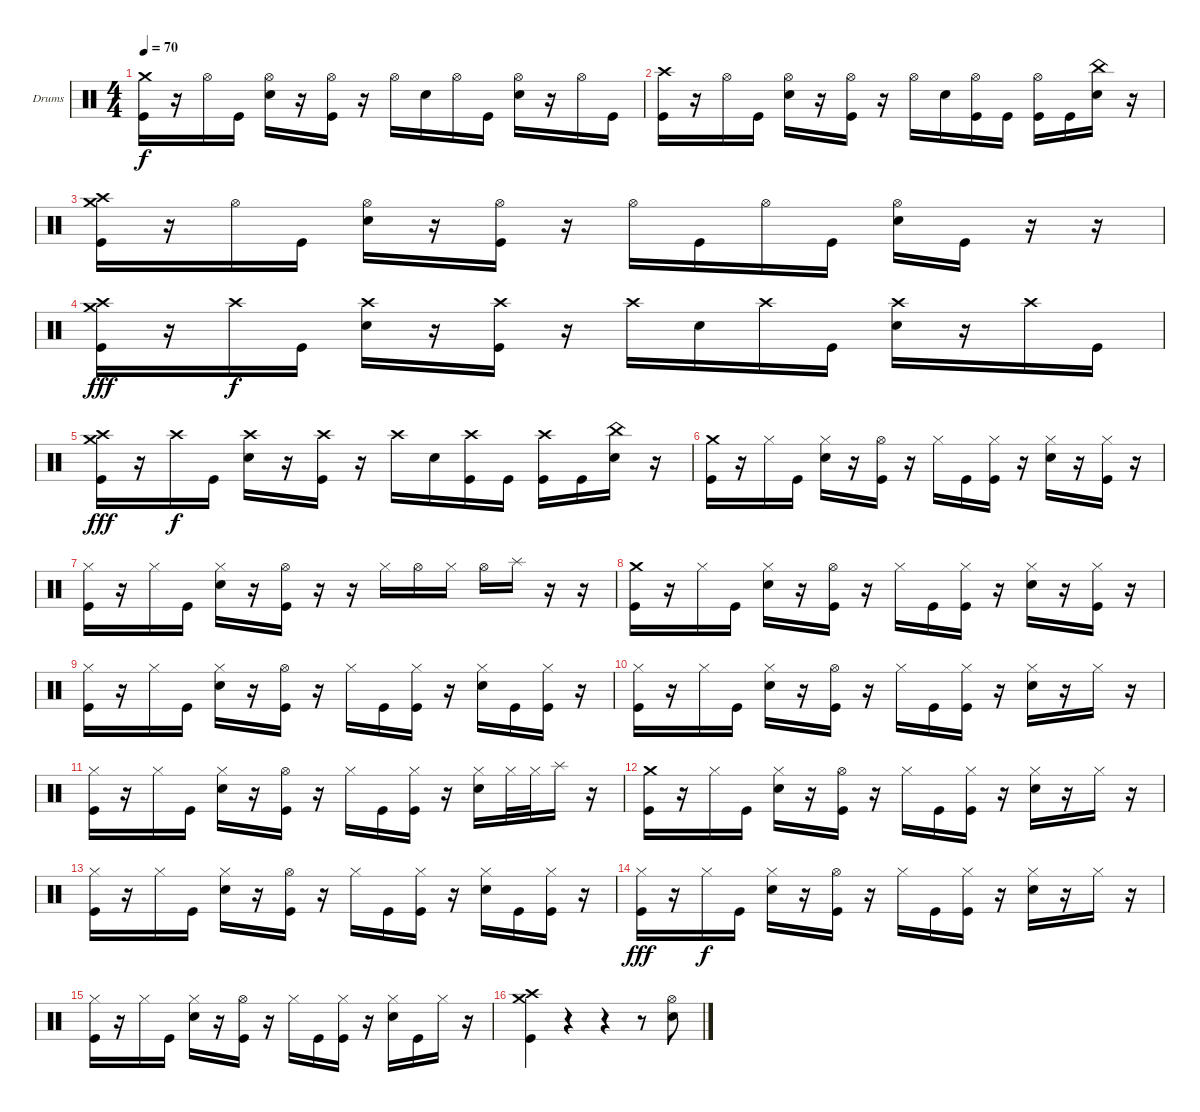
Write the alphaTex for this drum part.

\defaultSystemsLayout 4
\bracketExtendMode groupsimilarinstruments
\firstSystemTrackNameOrientation horizontal
\otherSystemsTrackNameOrientation horizontal
\track ("" "Drums") {instrument percussion}
\staff {score}
\articulation defaults
\ts (4 4)
\tempo 70
\clef neutral
\scale
0.333333
\ks c
("Crash medium (hit)" "Kick (hit)").16{dy f} r.16 "Hi-Hat (open)".16 "Kick (hit)".16 ("Hi-Hat (open)" "Snare (hit) 2").16 r.16 ("Hi-Hat (open)" "Kick (hit)").16 r.16 "Hi-Hat (open)".16 "Snare (hit) 2".16 "Hi-Hat (open)".16 "Kick (hit)".16 ("Hi-Hat (open)" "Snare (hit) 2").16 r.16 "Hi-Hat (open)".16 "Kick (hit)".16 |
\scale
0.333333 ("Crash high (hit)" "Kick (hit)").16 r.16 "Hi-Hat (open)".16 "Kick (hit)".16 ("Hi-Hat (open)" "Snare (hit) 2").16 r.16 ("Hi-Hat (open)" "Kick (hit)").16 r.16 "Hi-Hat (open)".16 "Snare (hit) 2".16 ("Hi-Hat (open)" "Kick (hit)").16 "Kick (hit)".16 ("Hi-Hat (open)" "Kick (hit)").16 "Kick (hit)".16 ("China (hit)" "Snare (hit) 2").16 r.16 |
\scale
0.333333 ("Crash high (hit)" "Crash medium (hit)" "Kick (hit)").16 r.16 "Hi-Hat (open)".16 "Kick (hit)".16 ("Hi-Hat (open)" "Snare (hit) 2").16 r.16 ("Hi-Hat (open)" "Kick (hit)").16 r.16 "Hi-Hat (open)".16 "Kick (hit)".16 "Hi-Hat (open)".16 "Kick (hit)".16 ("Hi-Hat (open)" "Snare (hit) 2").16 "Kick (hit)".16 r.16 r.16 |
\scale
0.333333 ("Crash high (hit)" "Crash medium (hit)" "Kick (hit)").16{dy fff} r.16 "Crash high (hit)".16{dy f} "Kick (hit)".16 ("Crash high (hit)" "Snare (hit) 2").16 r.16 ("Crash high (hit)" "Kick (hit)").16 r.16 "Crash high (hit)".16 "Snare (hit) 2".16 "Crash high (hit)".16 "Kick (hit)".16 ("Crash high (hit)" "Snare (hit) 2").16 r.16 "Crash high (hit)".16 "Kick (hit)".16 |
\scale
0.333333 ("Crash high (hit)" "Crash medium (hit)" "Kick (hit)").16{dy fff} r.16 "Crash high (hit)".16{dy f} "Kick (hit)".16 ("Crash high (hit)" "Snare (hit) 2").16 r.16 ("Crash high (hit)" "Kick (hit)").16 r.16 "Crash high (hit)".16 "Snare (hit) 2".16 ("Crash high (hit)" "Kick (hit)").16 "Kick (hit)".16 ("Crash high (hit)" "Kick (hit)").16 "Kick (hit)".16 ("China (hit)" "Snare (hit) 2").16 r.16 |
\scale
0.333333 ("Crash medium (hit)" "Kick (hit)").16 r.16 "Hi-Hat (closed)".16 "Kick (hit)".16 ("Hi-Hat (closed)" "Snare (hit) 2").16 r.16 ("Hi-Hat (open)" "Kick (hit)").16 r.16 "Hi-Hat (closed)".16 "Kick (hit)".16 ("Hi-Hat (closed)" "Kick (hit)").16 r.16 ("Hi-Hat (closed)" "Snare (hit) 2").16 r.16 ("Hi-Hat (closed)" "Kick (hit)").16 r.16 |
\scale
0.333333 ("Hi-Hat (closed)" "Kick (hit)").16 r.16 "Hi-Hat (closed)".16 "Kick (hit)".16 ("Hi-Hat (closed)" "Snare (hit) 2").16 r.16 ("Hi-Hat (open)" "Kick (hit)").16 r.16 r.16 "Hi-Hat (closed)".16 "Hi-Hat (open)".16 "Hi-Hat (closed)".16 "Hi-Hat (open)".16 "Splash (hit)".16 r.16 r.16 |
\scale
0.333333 ("Crash medium (hit)" "Kick (hit)").16 r.16 "Hi-Hat (closed)".16 "Kick (hit)".16 ("Hi-Hat (closed)" "Snare (hit) 2").16 r.16 ("Hi-Hat (open)" "Kick (hit)").16 r.16 "Hi-Hat (closed)".16 "Kick (hit)".16 ("Hi-Hat (closed)" "Kick (hit)").16 r.16 ("Hi-Hat (closed)" "Snare (hit) 2").16 r.16 ("Hi-Hat (closed)" "Kick (hit)").16 r.16 |
\scale
0.333333 ("Hi-Hat (closed)" "Kick (hit)").16 r.16 "Hi-Hat (closed)".16 "Kick (hit)".16 ("Hi-Hat (closed)" "Snare (hit) 2").16 r.16 ("Hi-Hat (open)" "Kick (hit)").16 r.16 "Hi-Hat (closed)".16 "Kick (hit)".16 ("Hi-Hat (closed)" "Kick (hit)").16 r.16 ("Hi-Hat (closed)" "Snare (hit) 2").16 "Kick (hit)".16 ("Hi-Hat (closed)" "Kick (hit)").16 r.16 |
\scale
0.333333 ("Hi-Hat (closed)" "Kick (hit)").16 r.16 "Hi-Hat (closed)".16 "Kick (hit)".16 ("Hi-Hat (closed)" "Snare (hit) 2").16 r.16 ("Hi-Hat (open)" "Kick (hit)").16 r.16 "Hi-Hat (closed)".16 "Kick (hit)".16 ("Hi-Hat (closed)" "Kick (hit)").16 r.16 ("Hi-Hat (closed)" "Snare (hit) 2").16 r.16 "Hi-Hat (closed)".16 r.16 |
\scale
0.333333 ("Hi-Hat (closed)" "Kick (hit)").16 r.16 "Hi-Hat (closed)".16 "Kick (hit)".16 ("Hi-Hat (closed)" "Snare (hit) 2").16 r.16 ("Hi-Hat (open)" "Kick (hit)").16 r.16 "Hi-Hat (closed)".16 "Kick (hit)".16 ("Hi-Hat (closed)" "Kick (hit)").16 r.16 ("Hi-Hat (closed)" "Snare (hit) 2").16 "Hi-Hat (closed)".32 "Hi-Hat (closed)".32 "Splash (hit)".16 r.16 |
\scale
0.333333 ("Crash medium (hit)" "Kick (hit)").16 r.16 "Hi-Hat (closed)".16 "Kick (hit)".16 ("Hi-Hat (closed)" "Snare (hit) 2").16 r.16 ("Hi-Hat (open)" "Kick (hit)").16 r.16 "Hi-Hat (closed)".16 "Kick (hit)".16 ("Hi-Hat (closed)" "Kick (hit)").16 r.16 ("Hi-Hat (closed)" "Snare (hit) 2").16 r.16 "Hi-Hat (closed)".16 r.16 |
\scale
0.333333 ("Hi-Hat (closed)" "Kick (hit)").16 r.16 "Hi-Hat (closed)".16 "Kick (hit)".16 ("Hi-Hat (closed)" "Snare (hit) 2").16 r.16 ("Hi-Hat (open)" "Kick (hit)").16 r.16 "Hi-Hat (closed)".16 "Kick (hit)".16 ("Hi-Hat (closed)" "Kick (hit)").16 r.16 ("Hi-Hat (closed)" "Snare (hit) 2").16 "Kick (hit)".16 ("Hi-Hat (closed)" "Kick (hit)").16 r.16 |
\scale
0.333333 ("Hi-Hat (closed)" "Kick (hit)").16{dy fff} r.16 "Hi-Hat (closed)".16{dy f} "Kick (hit)".16 ("Hi-Hat (closed)" "Snare (hit) 2").16 r.16 ("Hi-Hat (open)" "Kick (hit)").16 r.16 "Hi-Hat (closed)".16 "Kick (hit)".16 ("Hi-Hat (closed)" "Kick (hit)").16 r.16 ("Hi-Hat (closed)" "Snare (hit) 2").16 r.16 "Hi-Hat (closed)".16 r.16 |
\scale
0.333333 ("Hi-Hat (closed)" "Kick (hit)").16 r.16 "Hi-Hat (closed)".16 "Kick (hit)".16 ("Hi-Hat (closed)" "Snare (hit) 2").16 r.16 ("Hi-Hat (open)" "Kick (hit)").16 r.16 "Hi-Hat (closed)".16 "Kick (hit)".16 ("Hi-Hat (closed)" "Kick (hit)").16 r.16 ("Hi-Hat (closed)" "Snare (hit) 2").16 "Kick (hit)".16 "Hi-Hat (closed)".16 r.16 |
\scale
0.333333 ("Crash high (hit)" "Crash medium (hit)" "Kick (hit)").4 r.4 r.4 r.8 ("Hi-Hat (open)" "Snare (hit) 2").8
